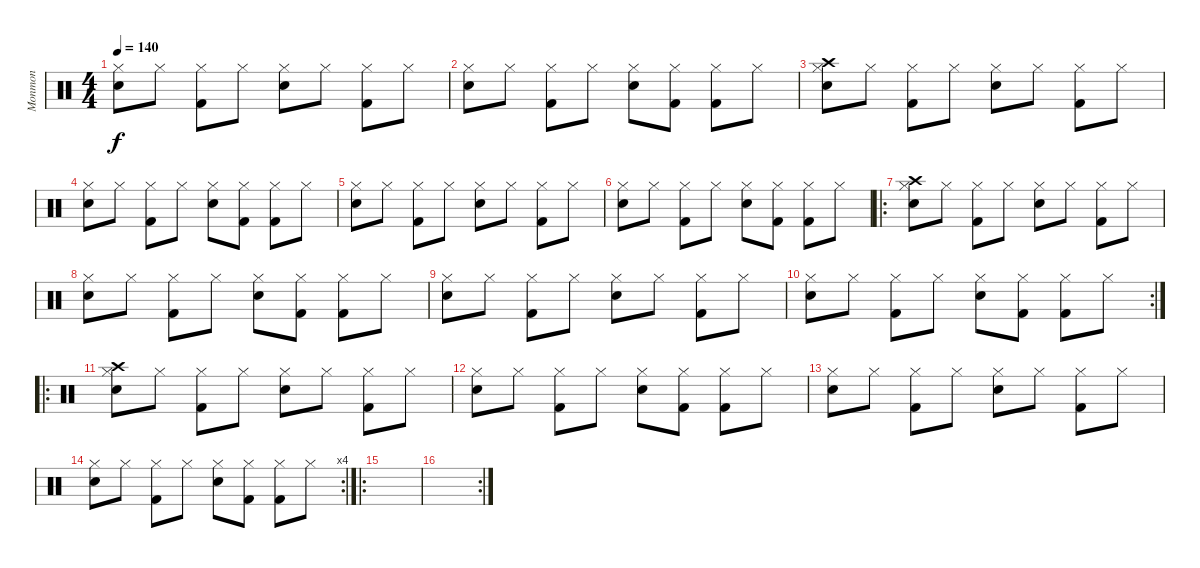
\track ("Monmon" "Monmon") {instrument percussion}
\staff {score}
\articulation defaults
\ts (4 4)
\tempo 140
\clef neutral
\ks c
("Hi-Hat (closed)" "Snare (hit) 2").8{dy f} "Hi-Hat (closed)".8 ("Hi-Hat (closed)" "Kick (hit) 2").8 "Hi-Hat (closed)".8 ("Hi-Hat (closed)" "Snare (hit) 2").8 "Hi-Hat (closed)".8 ("Hi-Hat (closed)" "Kick (hit) 2").8 "Hi-Hat (closed)".8 |
("Hi-Hat (closed)" "Snare (hit) 2").8 "Hi-Hat (closed)".8 ("Hi-Hat (closed)" "Kick (hit) 2").8 "Hi-Hat (closed)".8 ("Hi-Hat (closed)" "Snare (hit) 2").8 ("Hi-Hat (closed)" "Kick (hit) 2").8 ("Hi-Hat (closed)" "Kick (hit) 2").8 "Hi-Hat (closed)".8 |
("Crash high (hit)" "Hi-Hat (closed)" "Snare (hit) 2").8 "Hi-Hat (closed)".8 ("Hi-Hat (closed)" "Kick (hit) 2").8 "Hi-Hat (closed)".8 ("Hi-Hat (closed)" "Snare (hit) 2").8 "Hi-Hat (closed)".8 ("Hi-Hat (closed)" "Kick (hit) 2").8 "Hi-Hat (closed)".8 |
("Hi-Hat (closed)" "Snare (hit) 2").8 "Hi-Hat (closed)".8 ("Hi-Hat (closed)" "Kick (hit) 2").8 "Hi-Hat (closed)".8 ("Hi-Hat (closed)" "Snare (hit) 2").8 ("Hi-Hat (closed)" "Kick (hit) 2").8 ("Hi-Hat (closed)" "Kick (hit) 2").8 "Hi-Hat (closed)".8 |
("Hi-Hat (closed)" "Snare (hit) 2").8 "Hi-Hat (closed)".8 ("Hi-Hat (closed)" "Kick (hit) 2").8 "Hi-Hat (closed)".8 ("Hi-Hat (closed)" "Snare (hit) 2").8 "Hi-Hat (closed)".8 ("Hi-Hat (closed)" "Kick (hit) 2").8 "Hi-Hat (closed)".8 |
("Hi-Hat (closed)" "Snare (hit) 2").8 "Hi-Hat (closed)".8 ("Hi-Hat (closed)" "Kick (hit) 2").8 "Hi-Hat (closed)".8 ("Hi-Hat (closed)" "Snare (hit) 2").8 ("Hi-Hat (closed)" "Kick (hit) 2").8 ("Hi-Hat (closed)" "Kick (hit) 2").8 "Hi-Hat (closed)".8 |
\ro
("Crash high (hit)" "Hi-Hat (closed)" "Snare (hit) 2").8 "Hi-Hat (closed)".8 ("Hi-Hat (closed)" "Kick (hit) 2").8 "Hi-Hat (closed)".8 ("Hi-Hat (closed)" "Snare (hit) 2").8 "Hi-Hat (closed)".8 ("Hi-Hat (closed)" "Kick (hit) 2").8 "Hi-Hat (closed)".8 |
("Hi-Hat (closed)" "Snare (hit) 2").8 "Hi-Hat (closed)".8 ("Hi-Hat (closed)" "Kick (hit) 2").8 "Hi-Hat (closed)".8 ("Hi-Hat (closed)" "Snare (hit) 2").8 ("Hi-Hat (closed)" "Kick (hit) 2").8 ("Hi-Hat (closed)" "Kick (hit) 2").8 "Hi-Hat (closed)".8 |
("Hi-Hat (closed)" "Snare (hit) 2").8 "Hi-Hat (closed)".8 ("Hi-Hat (closed)" "Kick (hit) 2").8 "Hi-Hat (closed)".8 ("Hi-Hat (closed)" "Snare (hit) 2").8 "Hi-Hat (closed)".8 ("Hi-Hat (closed)" "Kick (hit) 2").8 "Hi-Hat (closed)".8 |
\rc 2
("Hi-Hat (closed)" "Snare (hit) 2").8 "Hi-Hat (closed)".8 ("Hi-Hat (closed)" "Kick (hit) 2").8 "Hi-Hat (closed)".8 ("Hi-Hat (closed)" "Snare (hit) 2").8 ("Hi-Hat (closed)" "Kick (hit) 2").8 ("Hi-Hat (closed)" "Kick (hit) 2").8 "Hi-Hat (closed)".8 |
\ro
("Crash high (hit)" "Hi-Hat (closed)" "Snare (hit) 2").8 "Hi-Hat (closed)".8 ("Hi-Hat (closed)" "Kick (hit) 2").8 "Hi-Hat (closed)".8 ("Hi-Hat (closed)" "Snare (hit) 2").8 "Hi-Hat (closed)".8 ("Hi-Hat (closed)" "Kick (hit) 2").8 "Hi-Hat (closed)".8 |
("Hi-Hat (closed)" "Snare (hit) 2").8 "Hi-Hat (closed)".8 ("Hi-Hat (closed)" "Kick (hit) 2").8 "Hi-Hat (closed)".8 ("Hi-Hat (closed)" "Snare (hit) 2").8 ("Hi-Hat (closed)" "Kick (hit) 2").8 ("Hi-Hat (closed)" "Kick (hit) 2").8 "Hi-Hat (closed)".8 |
("Hi-Hat (closed)" "Snare (hit) 2").8 "Hi-Hat (closed)".8 ("Hi-Hat (closed)" "Kick (hit) 2").8 "Hi-Hat (closed)".8 ("Hi-Hat (closed)" "Snare (hit) 2").8 "Hi-Hat (closed)".8 ("Hi-Hat (closed)" "Kick (hit) 2").8 "Hi-Hat (closed)".8 |
\rc 4
("Hi-Hat (closed)" "Snare (hit) 2").8 "Hi-Hat (closed)".8 ("Hi-Hat (closed)" "Kick (hit) 2").8 "Hi-Hat (closed)".8 ("Hi-Hat (closed)" "Snare (hit) 2").8 ("Hi-Hat (closed)" "Kick (hit) 2").8 ("Hi-Hat (closed)" "Kick (hit) 2").8 "Hi-Hat (closed)".8 |
\ro
|
\rc 2
